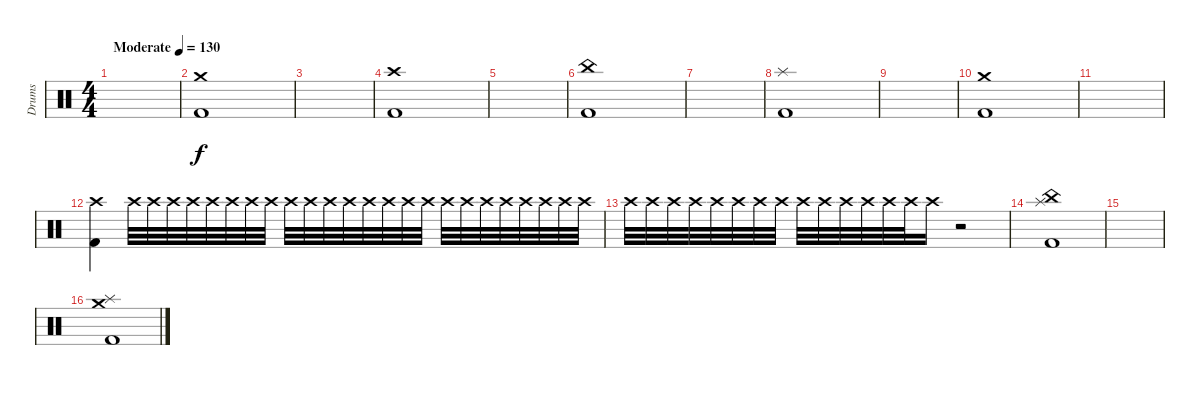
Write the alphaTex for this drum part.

\track ("Drums" "Drums") {instrument percussion}
\staff
\articulation defaults
\ts (4 4)
\tempo (130 "Moderate")
\clef neutral
\ks c
|
("Crash medium (hit)" "Kick (hit) 2").1 |
|
("Crash high (hit)" "Kick (hit) 2").1 |
|
("China (hit)" "Kick (hit) 2").1 |
|
("Splash (hit)" "Kick (hit) 2").1 |
|
("Crash medium (hit)" "Kick (hit) 2").1 |
|
("Crash high (hit)" "Kick (hit) 2").4 "Crash high (hit)".32{volume 6} "Crash high (hit)".32{volume 16} "Crash high (hit)".32 "Crash high (hit)".32 "Crash high (hit)".32 "Crash high (hit)".32 "Crash high (hit)".32 "Crash high (hit)".32 "Crash high (hit)".32 "Crash high (hit)".32 "Crash high (hit)".32 "Crash high (hit)".32 "Crash high (hit)".32 "Crash high (hit)".32 "Crash high (hit)".32 "Crash high (hit)".32 "Crash high (hit)".32 "Crash high (hit)".32 "Crash high (hit)".32 "Crash high (hit)".32 "Crash high (hit)".32 "Crash high (hit)".32 "Crash high (hit)".32 "Crash high (hit)".32 |
"Crash high (hit)".32 "Crash high (hit)".32 "Crash high (hit)".32 "Crash high (hit)".32 "Crash high (hit)".32 "Crash high (hit)".32 "Crash high (hit)".32 "Crash high (hit)".32 "Crash high (hit)".32 "Crash high (hit)".32 "Crash high (hit)".32 "Crash high (hit)".32 "Crash high (hit)".32 "Crash high (hit)".32 "Crash high (hit)".16 r.2 |
("Splash (hit)" "China (hit)" "Kick (hit) 2").1 |
|
("Crash medium (hit)" "Splash (hit)" "Kick (hit) 2").1
